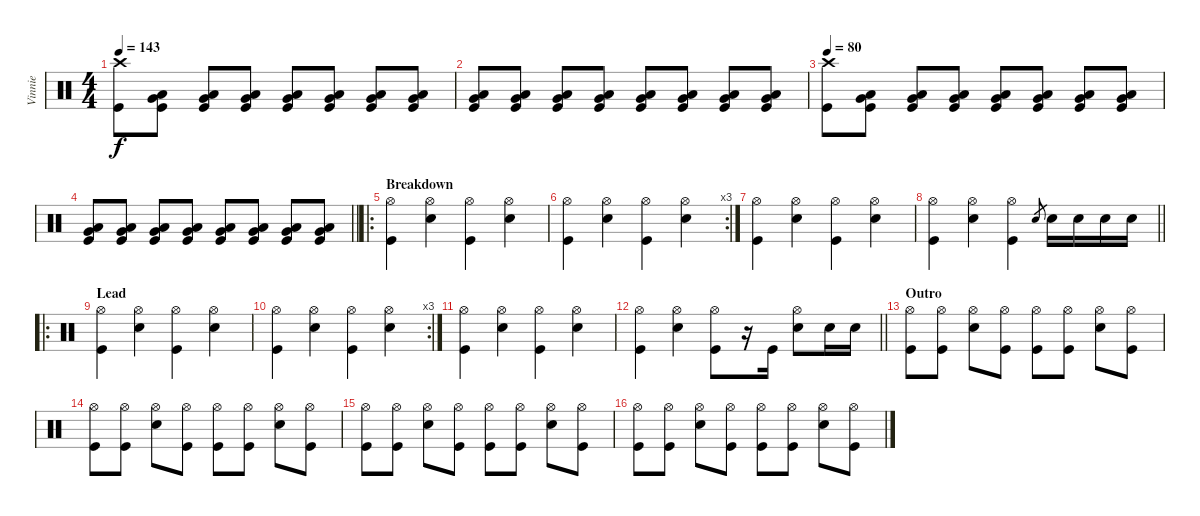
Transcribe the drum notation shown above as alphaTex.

\track ("Vinnie" "Vinnie") {instrument percussion}
\staff {score}
\articulation defaults
\ts (4 4)
\tempo 143
\clef neutral
\ks c
("Crash high (hit)" "Kick (hit)").8{dy f} ("Low Tom (hit)" "Very Low Tom (hit)" "Kick (hit)").8 ("Low Tom (hit)" "Very Low Tom (hit)" "Kick (hit)").8 ("Low Tom (hit)" "Very Low Tom (hit)" "Kick (hit)").8 ("Low Tom (hit)" "Very Low Tom (hit)" "Kick (hit)").8 ("Low Tom (hit)" "Very Low Tom (hit)" "Kick (hit)").8 ("Low Tom (hit)" "Very Low Tom (hit)" "Kick (hit)").8 ("Low Tom (hit)" "Very Low Tom (hit)" "Kick (hit)").8 |
("Low Tom (hit)" "Very Low Tom (hit)" "Kick (hit)").8 ("Low Tom (hit)" "Very Low Tom (hit)" "Kick (hit)").8 ("Low Tom (hit)" "Very Low Tom (hit)" "Kick (hit)").8 ("Low Tom (hit)" "Very Low Tom (hit)" "Kick (hit)").8 ("Low Tom (hit)" "Very Low Tom (hit)" "Kick (hit)").8 ("Low Tom (hit)" "Very Low Tom (hit)" "Kick (hit)").8 ("Low Tom (hit)" "Very Low Tom (hit)" "Kick (hit)").8 ("Low Tom (hit)" "Very Low Tom (hit)" "Kick (hit)").8 |
\tempo 80
("Crash high (hit)" "Kick (hit)").8 ("Low Tom (hit)" "Very Low Tom (hit)" "Kick (hit)").8 ("Low Tom (hit)" "Very Low Tom (hit)" "Kick (hit)").8 ("Low Tom (hit)" "Very Low Tom (hit)" "Kick (hit)").8 ("Low Tom (hit)" "Very Low Tom (hit)" "Kick (hit)").8 ("Low Tom (hit)" "Very Low Tom (hit)" "Kick (hit)").8 ("Low Tom (hit)" "Very Low Tom (hit)" "Kick (hit)").8 ("Low Tom (hit)" "Very Low Tom (hit)" "Kick (hit)").8 |
\barLineRight lightlight
("Low Tom (hit)" "Very Low Tom (hit)" "Kick (hit)").8 ("Low Tom (hit)" "Very Low Tom (hit)" "Kick (hit)").8 ("Low Tom (hit)" "Very Low Tom (hit)" "Kick (hit)").8 ("Low Tom (hit)" "Very Low Tom (hit)" "Kick (hit)").8 ("Low Tom (hit)" "Very Low Tom (hit)" "Kick (hit)").8 ("Low Tom (hit)" "Very Low Tom (hit)" "Kick (hit)").8 ("Low Tom (hit)" "Very Low Tom (hit)" "Kick (hit)").8 ("Low Tom (hit)" "Very Low Tom (hit)" "Kick (hit)").8 |
\ro
\section ("" "Breakdown")
("Hi-Hat (open)" "Kick (hit)").4 ("Hi-Hat (open)" "Electric Snare (hit)").4 ("Hi-Hat (open)" "Kick (hit)").4 ("Hi-Hat (open)" "Electric Snare (hit)").4 |
\rc 3
("Hi-Hat (open)" "Kick (hit)").4 ("Hi-Hat (open)" "Electric Snare (hit)").4 ("Hi-Hat (open)" "Kick (hit)").4 ("Hi-Hat (open)" "Electric Snare (hit)").4 |
("Hi-Hat (open)" "Kick (hit)").4 ("Hi-Hat (open)" "Electric Snare (hit)").4 ("Hi-Hat (open)" "Kick (hit)").4 ("Hi-Hat (open)" "Electric Snare (hit)").4 |
\barLineRight lightlight
("Hi-Hat (open)" "Kick (hit)").4 ("Hi-Hat (open)" "Electric Snare (hit)").4 ("Hi-Hat (open)" "Kick (hit)").4 "Electric Snare (hit)".8{gr} "Electric Snare (hit)".16 "Electric Snare (hit)".16 "Electric Snare (hit)".16 "Electric Snare (hit)".16 |
\ro
\section ("" "Lead")
("Hi-Hat (open)" "Kick (hit)").4 ("Hi-Hat (open)" "Electric Snare (hit)").4 ("Hi-Hat (open)" "Kick (hit)").4 ("Hi-Hat (open)" "Electric Snare (hit)").4 |
\rc 3
("Hi-Hat (open)" "Kick (hit)").4 ("Hi-Hat (open)" "Electric Snare (hit)").4 ("Hi-Hat (open)" "Kick (hit)").4 ("Hi-Hat (open)" "Electric Snare (hit)").4 |
("Hi-Hat (open)" "Kick (hit)").4 ("Hi-Hat (open)" "Electric Snare (hit)").4 ("Hi-Hat (open)" "Kick (hit)").4 ("Hi-Hat (open)" "Electric Snare (hit)").4 |
\barLineRight lightlight
("Hi-Hat (open)" "Kick (hit)").4 ("Hi-Hat (open)" "Electric Snare (hit)").4 ("Hi-Hat (open)" "Kick (hit)").8 r.16 "Kick (hit)".16 ("Hi-Hat (open)" "Electric Snare (hit)").8 "Electric Snare (hit)".16 "Electric Snare (hit)".16 |
\section ("" "Outro")
("Hi-Hat (open)" "Kick (hit)").8 ("Hi-Hat (open)" "Kick (hit)").8 ("Hi-Hat (open)" "Electric Snare (hit)").8 ("Hi-Hat (open)" "Kick (hit)").8 ("Hi-Hat (open)" "Kick (hit)").8 ("Hi-Hat (open)" "Kick (hit)").8 ("Hi-Hat (open)" "Electric Snare (hit)").8 ("Hi-Hat (open)" "Kick (hit)").8 |
("Hi-Hat (open)" "Kick (hit)").8 ("Hi-Hat (open)" "Kick (hit)").8 ("Hi-Hat (open)" "Electric Snare (hit)").8 ("Hi-Hat (open)" "Kick (hit)").8 ("Hi-Hat (open)" "Kick (hit)").8 ("Hi-Hat (open)" "Kick (hit)").8 ("Hi-Hat (open)" "Electric Snare (hit)").8 ("Hi-Hat (open)" "Kick (hit)").8 |
("Hi-Hat (open)" "Kick (hit)").8 ("Hi-Hat (open)" "Kick (hit)").8 ("Hi-Hat (open)" "Electric Snare (hit)").8 ("Hi-Hat (open)" "Kick (hit)").8 ("Hi-Hat (open)" "Kick (hit)").8 ("Hi-Hat (open)" "Kick (hit)").8 ("Hi-Hat (open)" "Electric Snare (hit)").8 ("Hi-Hat (open)" "Kick (hit)").8 |
("Hi-Hat (open)" "Kick (hit)").8 ("Hi-Hat (open)" "Kick (hit)").8 ("Hi-Hat (open)" "Electric Snare (hit)").8 ("Hi-Hat (open)" "Kick (hit)").8 ("Hi-Hat (open)" "Kick (hit)").8 ("Hi-Hat (open)" "Kick (hit)").8 ("Hi-Hat (open)" "Electric Snare (hit)").8 ("Hi-Hat (open)" "Kick (hit)").8
